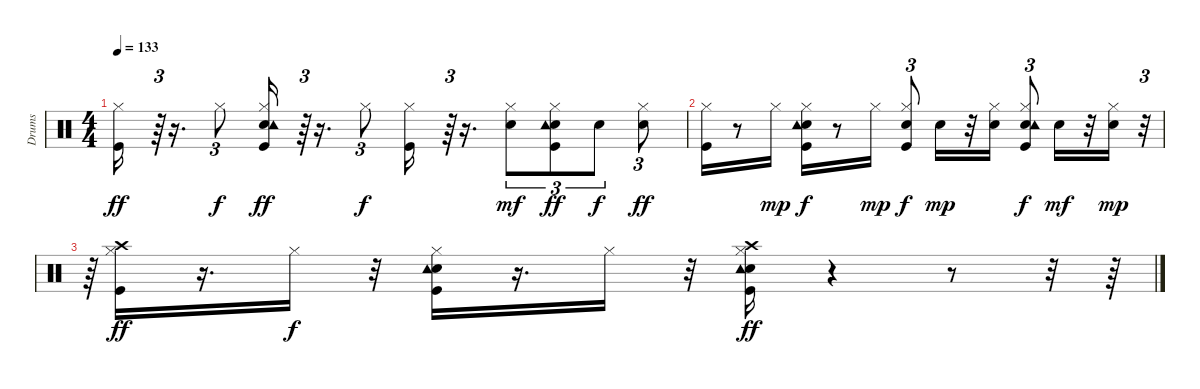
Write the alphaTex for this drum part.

\track ("Drums   " "Drums   ") {instrument percussion}
\staff {score}
\articulation defaults
\ts (4 4)
\tempo 133
\clef neutral
\ks c
("Kick (hit)" "Hi-Hat (closed)").16{dy ff} r.64{tu (3 2)} r.16{d} "Hi-Hat (closed)".8{tu (3 2) dy f} ("Kick (hit)" "Snare (hit) 2" "Hi-Hat (closed)" "Tambourine (hit)").16{dy ff} r.64{tu (3 2)} r.16{d} "Hi-Hat (closed)".8{tu (3 2) dy f} ("Kick (hit)" "Hi-Hat (closed)").16 r.64{tu (3 2)} r.16{d} ("Snare (hit) 2" "Hi-Hat (closed)").8{tu (3 2) dy mf} ("Kick (hit)" "Snare (hit) 2" "Hi-Hat (closed)" "Tambourine (hit)").8{tu (3 2) dy ff} "Snare (hit) 2".8{tu (3 2) dy f} ("Snare (hit) 2" "Hi-Hat (closed)").8{tu (3 2) dy ff} |
("Kick (hit)" "Hi-Hat (closed)").16 r.8 "Hi-Hat (closed)".16{dy mp} ("Kick (hit)" "Snare (hit) 2" "Hi-Hat (closed)" "Tambourine (hit)").16{dy f} r.8 "Hi-Hat (closed)".16{dy mp} ("Kick (hit)" "Snare (hit) 2" "Hi-Hat (closed)").8{tu (3 2) dy f} "Snare (hit) 2".16{dy mp} r.32 ("Snare (hit) 2" "Hi-Hat (closed)").16 ("Kick (hit)" "Snare (hit) 2" "Hi-Hat (closed)" "Tambourine (hit)").8{tu (3 2) dy f} "Snare (hit) 2".16{dy mf} r.32 ("Snare (hit) 2" "Hi-Hat (closed)").16{dy mp} r.32{tu (3 2)} |
r.64{tu (3 2)} ("Kick (hit)" "Hi-Hat (closed)" "Crash high (hit)").16{dy ff} r.16{d} "Hi-Hat (closed)".16{dy f} r.32 ("Kick (hit)" "Snare (hit) 2" "Hi-Hat (closed)" "Tambourine (hit)").16 r.16{d} "Hi-Hat (closed)".16 r.32 ("Kick (hit)" "Snare (hit) 2" "Hi-Hat (closed)" "Crash high (hit)" "Tambourine (hit)").16{dy ff} r.4 r.8 r.32 r.64
